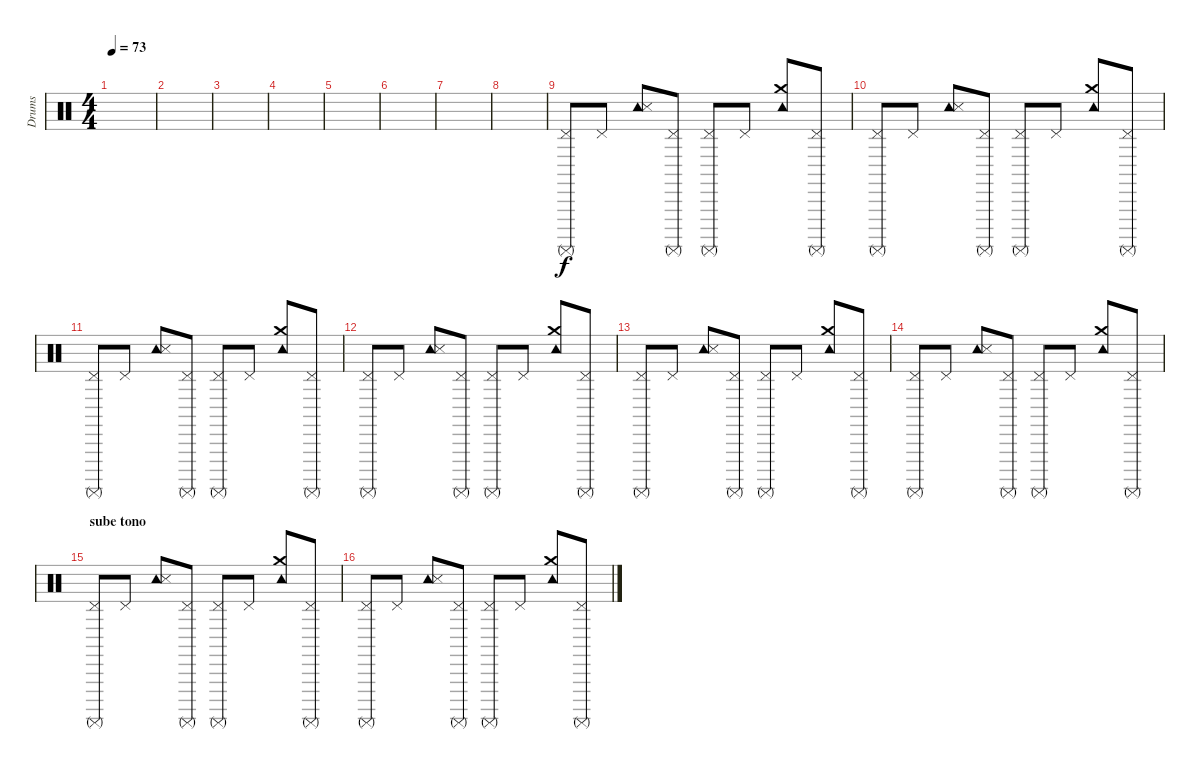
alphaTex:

\track ("Drums" "Drums") {instrument percussion}
\staff {score}
\articulation defaults
\ts (4 4)
\tempo 73
\clef neutral
\ks c
|
|
|
|
|
|
|
|
("Pedal Hi-Hat (hit)" "Surdo (mute)").8 "Pedal Hi-Hat (hit)".8 ("Tambourine (hit)" "Snare (side stick) 3").8 ("Pedal Hi-Hat (hit)" "Surdo (mute)").8 ("Pedal Hi-Hat (hit)" "Surdo (mute)").8 "Pedal Hi-Hat (hit)".8 ("Tambourine (hit)" "Crash medium (hit)").8 ("Pedal Hi-Hat (hit)" "Surdo (mute)").8 |
("Pedal Hi-Hat (hit)" "Surdo (mute)").8 "Pedal Hi-Hat (hit)".8 ("Tambourine (hit)" "Snare (side stick) 3").8 ("Pedal Hi-Hat (hit)" "Surdo (mute)").8 ("Pedal Hi-Hat (hit)" "Surdo (mute)").8 "Pedal Hi-Hat (hit)".8 ("Tambourine (hit)" "Crash medium (hit)").8 ("Pedal Hi-Hat (hit)" "Surdo (mute)").8 |
("Pedal Hi-Hat (hit)" "Surdo (mute)").8 "Pedal Hi-Hat (hit)".8 ("Tambourine (hit)" "Snare (side stick) 3").8 ("Pedal Hi-Hat (hit)" "Surdo (mute)").8 ("Pedal Hi-Hat (hit)" "Surdo (mute)").8 "Pedal Hi-Hat (hit)".8 ("Tambourine (hit)" "Crash medium (hit)").8 ("Pedal Hi-Hat (hit)" "Surdo (mute)").8 |
("Pedal Hi-Hat (hit)" "Surdo (mute)").8 "Pedal Hi-Hat (hit)".8 ("Tambourine (hit)" "Snare (side stick) 3").8 ("Pedal Hi-Hat (hit)" "Surdo (mute)").8 ("Pedal Hi-Hat (hit)" "Surdo (mute)").8 "Pedal Hi-Hat (hit)".8 ("Tambourine (hit)" "Crash medium (hit)").8 ("Pedal Hi-Hat (hit)" "Surdo (mute)").8 |
("Pedal Hi-Hat (hit)" "Surdo (mute)").8 "Pedal Hi-Hat (hit)".8 ("Tambourine (hit)" "Snare (side stick) 3").8 ("Pedal Hi-Hat (hit)" "Surdo (mute)").8 ("Pedal Hi-Hat (hit)" "Surdo (mute)").8 "Pedal Hi-Hat (hit)".8 ("Tambourine (hit)" "Crash medium (hit)").8 ("Pedal Hi-Hat (hit)" "Surdo (mute)").8 |
("Pedal Hi-Hat (hit)" "Surdo (mute)").8 "Pedal Hi-Hat (hit)".8 ("Tambourine (hit)" "Snare (side stick) 3").8 ("Pedal Hi-Hat (hit)" "Surdo (mute)").8 ("Pedal Hi-Hat (hit)" "Surdo (mute)").8 "Pedal Hi-Hat (hit)".8 ("Tambourine (hit)" "Crash medium (hit)").8 ("Pedal Hi-Hat (hit)" "Surdo (mute)").8 |
\section ("" "sube tono")
("Pedal Hi-Hat (hit)" "Surdo (mute)").8 "Pedal Hi-Hat (hit)".8 ("Tambourine (hit)" "Snare (side stick) 3").8 ("Pedal Hi-Hat (hit)" "Surdo (mute)").8 ("Pedal Hi-Hat (hit)" "Surdo (mute)").8 "Pedal Hi-Hat (hit)".8 ("Tambourine (hit)" "Crash medium (hit)").8 ("Pedal Hi-Hat (hit)" "Surdo (mute)").8 |
("Pedal Hi-Hat (hit)" "Surdo (mute)").8 "Pedal Hi-Hat (hit)".8 ("Tambourine (hit)" "Snare (side stick) 3").8 ("Pedal Hi-Hat (hit)" "Surdo (mute)").8 ("Pedal Hi-Hat (hit)" "Surdo (mute)").8 "Pedal Hi-Hat (hit)".8 ("Tambourine (hit)" "Crash medium (hit)").8 ("Pedal Hi-Hat (hit)" "Surdo (mute)").8
